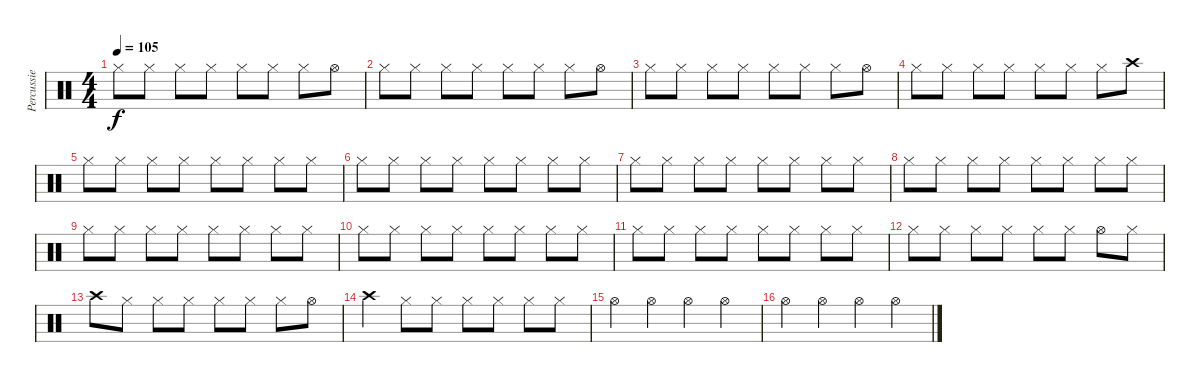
\track ("Percussie" "Percussie") {instrument percussion}
\staff {score}
\articulation defaults
\ts (4 4)
\tempo 105
\clef neutral
\ks c "Hi-Hat (closed)".8{dy f} "Hi-Hat (closed)".8 "Hi-Hat (closed)".8 "Hi-Hat (closed)".8 "Hi-Hat (closed)".8 "Hi-Hat (closed)".8 "Hi-Hat (closed)".8 "Hi-Hat (open)".8
|
"Hi-Hat (closed)".8 "Hi-Hat (closed)".8 "Hi-Hat (closed)".8 "Hi-Hat (closed)".8 "Hi-Hat (closed)".8 "Hi-Hat (closed)".8 "Hi-Hat (closed)".8 "Hi-Hat (open)".8 |
"Hi-Hat (closed)".8 "Hi-Hat (closed)".8 "Hi-Hat (closed)".8 "Hi-Hat (closed)".8 "Hi-Hat (closed)".8 "Hi-Hat (closed)".8 "Hi-Hat (closed)".8 "Hi-Hat (open)".8 |
"Hi-Hat (closed)".8 "Hi-Hat (closed)".8 "Hi-Hat (closed)".8 "Hi-Hat (closed)".8 "Hi-Hat (closed)".8 "Hi-Hat (closed)".8 "Hi-Hat (closed)".8 "Crash high (hit)".8 |
"Hi-Hat (closed)".8 "Hi-Hat (closed)".8 "Hi-Hat (closed)".8 "Hi-Hat (closed)".8 "Hi-Hat (closed)".8 "Hi-Hat (closed)".8 "Hi-Hat (closed)".8 "Hi-Hat (closed)".8 |
"Hi-Hat (closed)".8 "Hi-Hat (closed)".8 "Hi-Hat (closed)".8 "Hi-Hat (closed)".8 "Hi-Hat (closed)".8 "Hi-Hat (closed)".8 "Hi-Hat (closed)".8 "Hi-Hat (closed)".8 |
"Hi-Hat (closed)".8 "Hi-Hat (closed)".8 "Hi-Hat (closed)".8 "Hi-Hat (closed)".8 "Hi-Hat (closed)".8 "Hi-Hat (closed)".8 "Hi-Hat (closed)".8 "Hi-Hat (closed)".8 |
"Hi-Hat (closed)".8 "Hi-Hat (closed)".8 "Hi-Hat (closed)".8 "Hi-Hat (closed)".8 "Hi-Hat (closed)".8 "Hi-Hat (closed)".8 "Hi-Hat (closed)".8 "Hi-Hat (closed)".8 |
"Hi-Hat (closed)".8 "Hi-Hat (closed)".8 "Hi-Hat (closed)".8 "Hi-Hat (closed)".8 "Hi-Hat (closed)".8 "Hi-Hat (closed)".8 "Hi-Hat (closed)".8 "Hi-Hat (closed)".8 |
"Hi-Hat (closed)".8 "Hi-Hat (closed)".8 "Hi-Hat (closed)".8 "Hi-Hat (closed)".8 "Hi-Hat (closed)".8 "Hi-Hat (closed)".8 "Hi-Hat (closed)".8 "Hi-Hat (closed)".8 |
"Hi-Hat (closed)".8 "Hi-Hat (closed)".8 "Hi-Hat (closed)".8 "Hi-Hat (closed)".8 "Hi-Hat (closed)".8 "Hi-Hat (closed)".8 "Hi-Hat (closed)".8 "Hi-Hat (closed)".8 |
"Hi-Hat (closed)".8 "Hi-Hat (closed)".8 "Hi-Hat (closed)".8 "Hi-Hat (closed)".8 "Hi-Hat (closed)".8 "Hi-Hat (closed)".8 "Hi-Hat (open)".8 "Hi-Hat (closed)".8 |
"Crash high (hit)".8 "Hi-Hat (closed)".8 "Hi-Hat (closed)".8 "Hi-Hat (closed)".8 "Hi-Hat (closed)".8 "Hi-Hat (closed)".8 "Hi-Hat (closed)".8 "Hi-Hat (open)".8 |
"Crash high (hit)".4 "Hi-Hat (closed)".8 "Hi-Hat (closed)".8 "Hi-Hat (closed)".8 "Hi-Hat (closed)".8 "Hi-Hat (closed)".8 "Hi-Hat (closed)".8 |
"Hi-Hat (open)".4 "Hi-Hat (open)".4 "Hi-Hat (open)".4 "Hi-Hat (open)".4 |
"Hi-Hat (open)".4 "Hi-Hat (open)".4 "Hi-Hat (open)".4 "Hi-Hat (open)".4
